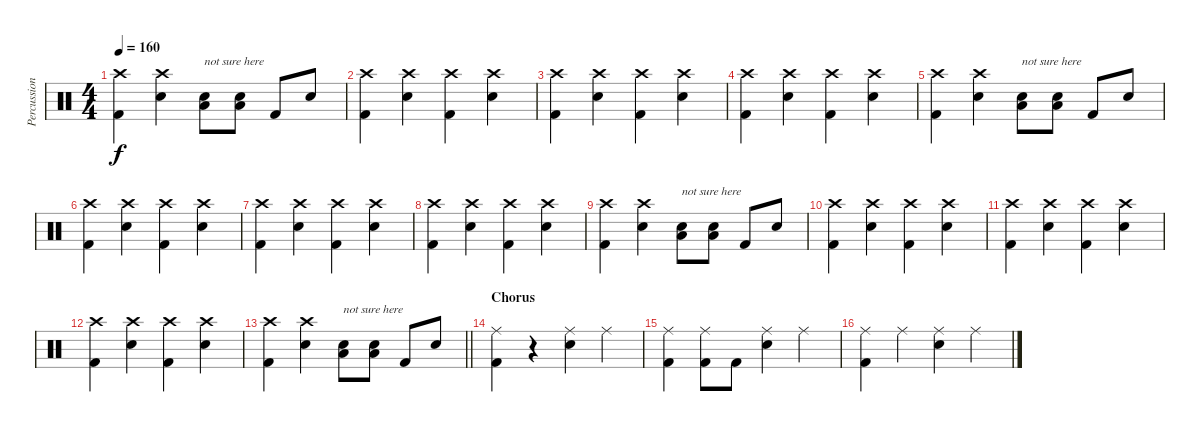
\track ("Percussion" "Percussion") {solo instrument percussion}
\staff {score}
\articulation defaults
\ts (4 4)
\tempo 160
\clef neutral
\ks c
("Crash high (hit)" "Kick (hit) 2").4{dy f} ("Crash high (hit)" "Snare (hit) 2").4 ("Low Tom (hit)" "Snare (hit) 2").8{txt "not sure here"} ("Low Tom (hit)" "Snare (hit) 2").8 "Kick (hit) 2".8 "Snare (hit) 2".8 |
("Crash high (hit)" "Kick (hit) 2").4 ("Crash high (hit)" "Snare (hit) 2").4 ("Crash high (hit)" "Kick (hit) 2").4 ("Crash high (hit)" "Snare (hit) 2").4 |
("Crash high (hit)" "Kick (hit) 2").4 ("Crash high (hit)" "Snare (hit) 2").4 ("Crash high (hit)" "Kick (hit) 2").4 ("Crash high (hit)" "Snare (hit) 2").4 |
("Crash high (hit)" "Kick (hit) 2").4 ("Crash high (hit)" "Snare (hit) 2").4 ("Crash high (hit)" "Kick (hit) 2").4 ("Crash high (hit)" "Snare (hit) 2").4 |
("Crash high (hit)" "Kick (hit) 2").4 ("Crash high (hit)" "Snare (hit) 2").4 ("Low Tom (hit)" "Snare (hit) 2").8{txt "not sure here"} ("Low Tom (hit)" "Snare (hit) 2").8 "Kick (hit) 2".8 "Snare (hit) 2".8 |
("Crash high (hit)" "Kick (hit) 2").4 ("Crash high (hit)" "Snare (hit) 2").4 ("Crash high (hit)" "Kick (hit) 2").4 ("Crash high (hit)" "Snare (hit) 2").4 |
("Crash high (hit)" "Kick (hit) 2").4 ("Crash high (hit)" "Snare (hit) 2").4 ("Crash high (hit)" "Kick (hit) 2").4 ("Crash high (hit)" "Snare (hit) 2").4 |
("Crash high (hit)" "Kick (hit) 2").4 ("Crash high (hit)" "Snare (hit) 2").4 ("Crash high (hit)" "Kick (hit) 2").4 ("Crash high (hit)" "Snare (hit) 2").4 |
("Crash high (hit)" "Kick (hit) 2").4 ("Crash high (hit)" "Snare (hit) 2").4 ("Low Tom (hit)" "Snare (hit) 2").8{txt "not sure here"} ("Low Tom (hit)" "Snare (hit) 2").8 "Kick (hit) 2".8 "Snare (hit) 2".8 |
("Crash high (hit)" "Kick (hit) 2").4 ("Crash high (hit)" "Snare (hit) 2").4 ("Crash high (hit)" "Kick (hit) 2").4 ("Crash high (hit)" "Snare (hit) 2").4 |
("Crash high (hit)" "Kick (hit) 2").4 ("Crash high (hit)" "Snare (hit) 2").4 ("Crash high (hit)" "Kick (hit) 2").4 ("Crash high (hit)" "Snare (hit) 2").4 |
("Crash high (hit)" "Kick (hit) 2").4 ("Crash high (hit)" "Snare (hit) 2").4 ("Crash high (hit)" "Kick (hit) 2").4 ("Crash high (hit)" "Snare (hit) 2").4 |
\barLineRight lightlight
("Crash high (hit)" "Kick (hit) 2").4 ("Crash high (hit)" "Snare (hit) 2").4 ("Low Tom (hit)" "Snare (hit) 2").8{txt "not sure here"} ("Low Tom (hit)" "Snare (hit) 2").8 "Kick (hit) 2".8 "Snare (hit) 2".8 |
\section ("" "Chorus")
("Ride (middle)" "Kick (hit) 2").4 r.4 ("Ride (middle)" "Snare (hit) 2").4 "Ride (middle)".4 |
("Ride (middle)" "Kick (hit) 2").4 ("Ride (middle)" "Kick (hit) 2").8 "Kick (hit) 2".8 ("Ride (middle)" "Snare (hit) 2").4 "Ride (middle)".4 |
("Ride (middle)" "Kick (hit) 2").4 "Ride (middle)".4 ("Ride (middle)" "Snare (hit) 2").4 "Ride (middle)".4
